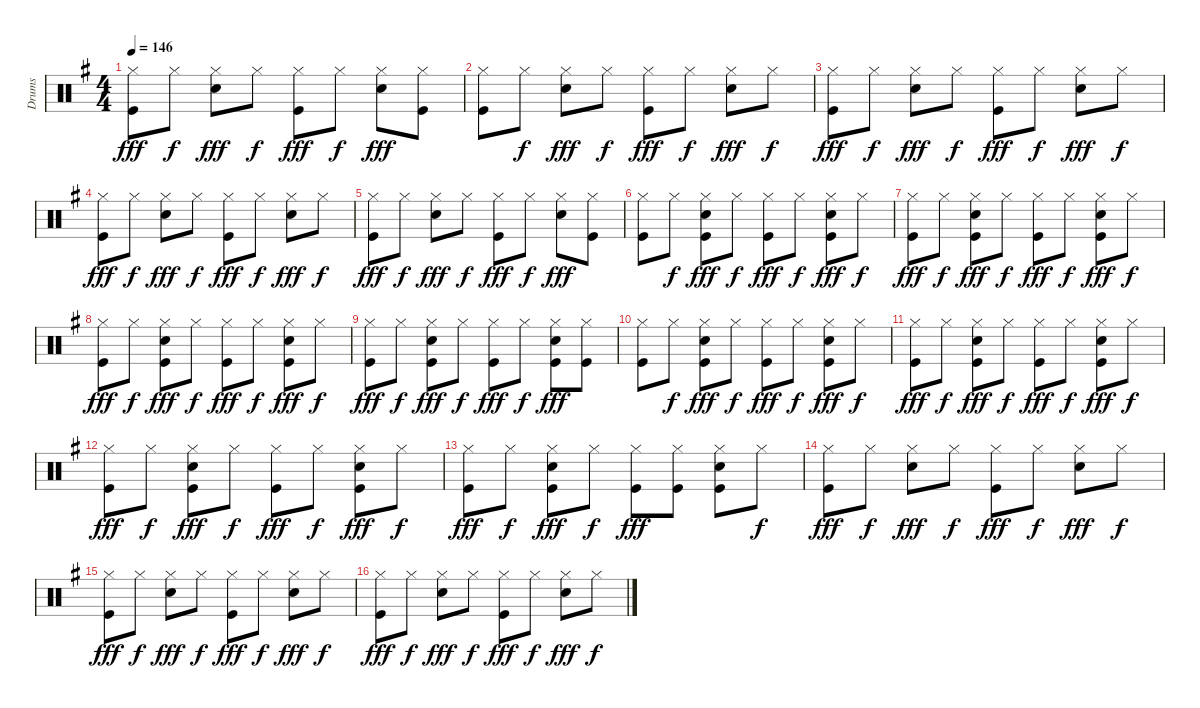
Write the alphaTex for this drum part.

\track ("Drums" "Drums") {instrument percussion}
\staff {score}
\articulation defaults
\ts (4 4)
\tempo 146
\clef neutral
\ks g
("Hi-Hat (closed)" "Kick (hit)").8{dy fff} "Hi-Hat (closed)".8{dy f} ("Hi-Hat (closed)" "Snare (hit) 2").8{dy fff} "Hi-Hat (closed)".8{dy f} ("Hi-Hat (closed)" "Kick (hit)").8{dy fff} "Hi-Hat (closed)".8{dy f} ("Hi-Hat (closed)" "Snare (hit) 2").8{dy fff} ("Hi-Hat (closed)" "Kick (hit)").8 |
("Hi-Hat (closed)" "Kick (hit)").8 "Hi-Hat (closed)".8{dy f} ("Hi-Hat (closed)" "Snare (hit) 2").8{dy fff} "Hi-Hat (closed)".8{dy f} ("Hi-Hat (closed)" "Kick (hit)").8{dy fff} "Hi-Hat (closed)".8{dy f} ("Hi-Hat (closed)" "Snare (hit) 2").8{dy fff} "Hi-Hat (closed)".8{dy f} |
("Hi-Hat (closed)" "Kick (hit)").8{dy fff} "Hi-Hat (closed)".8{dy f} ("Hi-Hat (closed)" "Snare (hit) 2").8{dy fff} "Hi-Hat (closed)".8{dy f} ("Hi-Hat (closed)" "Kick (hit)").8{dy fff} "Hi-Hat (closed)".8{dy f} ("Hi-Hat (closed)" "Snare (hit) 2").8{dy fff} "Hi-Hat (closed)".8{dy f} |
("Hi-Hat (closed)" "Kick (hit)").8{dy fff} "Hi-Hat (closed)".8{dy f} ("Hi-Hat (closed)" "Snare (hit) 2").8{dy fff} "Hi-Hat (closed)".8{dy f} ("Hi-Hat (closed)" "Kick (hit)").8{dy fff} "Hi-Hat (closed)".8{dy f} ("Hi-Hat (closed)" "Snare (hit) 2").8{dy fff} "Hi-Hat (closed)".8{dy f} |
("Hi-Hat (closed)" "Kick (hit)").8{dy fff} "Hi-Hat (closed)".8{dy f} ("Hi-Hat (closed)" "Snare (hit) 2").8{dy fff} "Hi-Hat (closed)".8{dy f} ("Hi-Hat (closed)" "Kick (hit)").8{dy fff} "Hi-Hat (closed)".8{dy f} ("Hi-Hat (closed)" "Snare (hit) 2").8{dy fff} ("Hi-Hat (closed)" "Kick (hit)").8 |
("Hi-Hat (closed)" "Kick (hit)").8 "Hi-Hat (closed)".8{dy f} ("Hi-Hat (closed)" "Snare (hit) 2" "Kick (hit)").8{dy fff} "Hi-Hat (closed)".8{dy f} ("Hi-Hat (closed)" "Kick (hit)").8{dy fff} "Hi-Hat (closed)".8{dy f} ("Hi-Hat (closed)" "Snare (hit) 2" "Kick (hit)").8{dy fff} "Hi-Hat (closed)".8{dy f} |
("Hi-Hat (closed)" "Kick (hit)").8{dy fff} "Hi-Hat (closed)".8{dy f} ("Hi-Hat (closed)" "Snare (hit) 2" "Kick (hit)").8{dy fff} "Hi-Hat (closed)".8{dy f} ("Hi-Hat (closed)" "Kick (hit)").8{dy fff} "Hi-Hat (closed)".8{dy f} ("Hi-Hat (closed)" "Snare (hit) 2" "Kick (hit)").8{dy fff} "Hi-Hat (closed)".8{dy f} |
("Hi-Hat (closed)" "Kick (hit)").8{dy fff} "Hi-Hat (closed)".8{dy f} ("Hi-Hat (closed)" "Snare (hit) 2" "Kick (hit)").8{dy fff} "Hi-Hat (closed)".8{dy f} ("Hi-Hat (closed)" "Kick (hit)").8{dy fff} "Hi-Hat (closed)".8{dy f} ("Hi-Hat (closed)" "Snare (hit) 2" "Kick (hit)").8{dy fff} "Hi-Hat (closed)".8{dy f} |
("Hi-Hat (closed)" "Kick (hit)").8{dy fff} "Hi-Hat (closed)".8{dy f} ("Hi-Hat (closed)" "Snare (hit) 2" "Kick (hit)").8{dy fff} "Hi-Hat (closed)".8{dy f} ("Hi-Hat (closed)" "Kick (hit)").8{dy fff} "Hi-Hat (closed)".8{dy f} ("Hi-Hat (closed)" "Snare (hit) 2" "Kick (hit)").8{dy fff} ("Hi-Hat (closed)" "Kick (hit)").8 |
("Hi-Hat (closed)" "Kick (hit)").8 "Hi-Hat (closed)".8{dy f} ("Hi-Hat (closed)" "Snare (hit) 2" "Kick (hit)").8{dy fff} "Hi-Hat (closed)".8{dy f} ("Hi-Hat (closed)" "Kick (hit)").8{dy fff} "Hi-Hat (closed)".8{dy f} ("Hi-Hat (closed)" "Snare (hit) 2" "Kick (hit)").8{dy fff} "Hi-Hat (closed)".8{dy f} |
("Hi-Hat (closed)" "Kick (hit)").8{dy fff} "Hi-Hat (closed)".8{dy f} ("Hi-Hat (closed)" "Snare (hit) 2" "Kick (hit)").8{dy fff} "Hi-Hat (closed)".8{dy f} ("Hi-Hat (closed)" "Kick (hit)").8{dy fff} "Hi-Hat (closed)".8{dy f} ("Hi-Hat (closed)" "Snare (hit) 2" "Kick (hit)").8{dy fff} "Hi-Hat (closed)".8{dy f} |
("Hi-Hat (closed)" "Kick (hit)").8{dy fff} "Hi-Hat (closed)".8{dy f} ("Hi-Hat (closed)" "Snare (hit) 2" "Kick (hit)").8{dy fff} "Hi-Hat (closed)".8{dy f} ("Hi-Hat (closed)" "Kick (hit)").8{dy fff} "Hi-Hat (closed)".8{dy f} ("Hi-Hat (closed)" "Snare (hit) 2" "Kick (hit)").8{dy fff} "Hi-Hat (closed)".8{dy f} |
("Hi-Hat (closed)" "Kick (hit)").8{dy fff} "Hi-Hat (closed)".8{dy f} ("Hi-Hat (closed)" "Snare (hit) 2" "Kick (hit)").8{dy fff} "Hi-Hat (closed)".8{dy f} ("Hi-Hat (closed)" "Kick (hit)").8{dy fff} ("Hi-Hat (closed)" "Kick (hit)").8 ("Hi-Hat (closed)" "Snare (hit) 2" "Kick (hit)").8 "Hi-Hat (closed)".8{dy f} |
("Hi-Hat (closed)" "Kick (hit)").8{dy fff} "Hi-Hat (closed)".8{dy f} ("Hi-Hat (closed)" "Snare (hit) 2").8{dy fff} "Hi-Hat (closed)".8{dy f} ("Hi-Hat (closed)" "Kick (hit)").8{dy fff} "Hi-Hat (closed)".8{dy f} ("Hi-Hat (closed)" "Snare (hit) 2").8{dy fff} "Hi-Hat (closed)".8{dy f} |
("Hi-Hat (closed)" "Kick (hit)").8{dy fff} "Hi-Hat (closed)".8{dy f} ("Hi-Hat (closed)" "Snare (hit) 2").8{dy fff} "Hi-Hat (closed)".8{dy f} ("Hi-Hat (closed)" "Kick (hit)").8{dy fff} "Hi-Hat (closed)".8{dy f} ("Hi-Hat (closed)" "Snare (hit) 2").8{dy fff} "Hi-Hat (closed)".8{dy f} |
("Hi-Hat (closed)" "Kick (hit)").8{dy fff} "Hi-Hat (closed)".8{dy f} ("Hi-Hat (closed)" "Snare (hit) 2").8{dy fff} "Hi-Hat (closed)".8{dy f} ("Hi-Hat (closed)" "Kick (hit)").8{dy fff} "Hi-Hat (closed)".8{dy f} ("Hi-Hat (closed)" "Snare (hit) 2").8{dy fff} "Hi-Hat (closed)".8{dy f}
